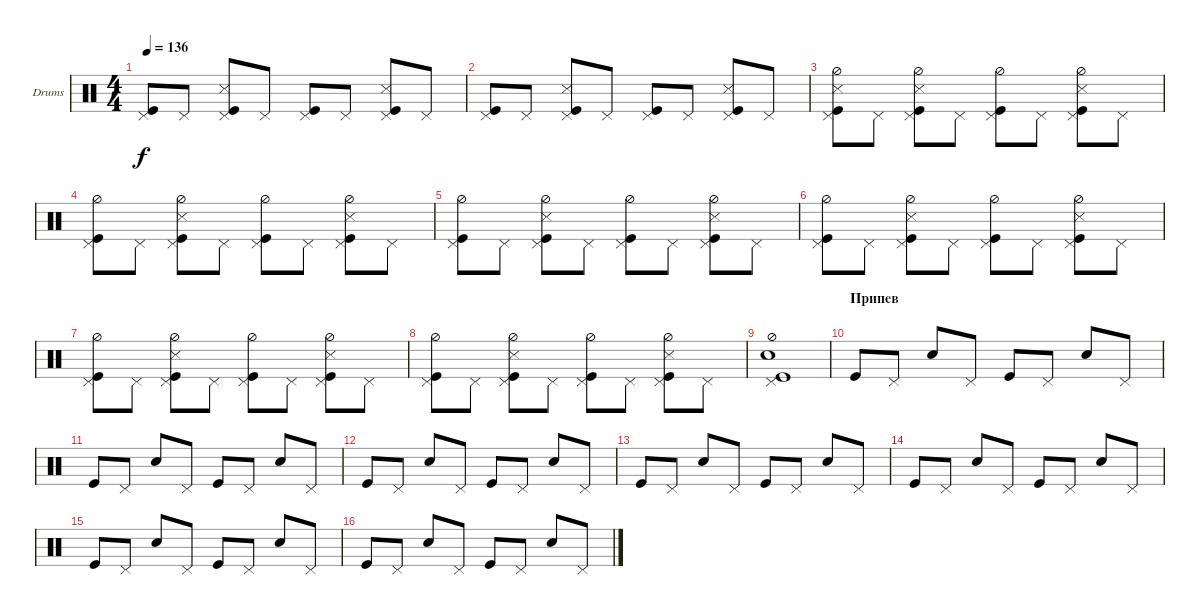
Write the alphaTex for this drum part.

\defaultSystemsLayout 4
\bracketExtendMode groupsimilarinstruments
\firstSystemTrackNameOrientation horizontal
\otherSystemsTrackNameOrientation horizontal
\track ("Е. Кулаков" "Drums") {instrument percussion}
\staff {score}
\articulation defaults
\ts (4 4)
\tempo 136
\clef neutral
\ks c
("Pedal Hi-Hat (hit)" "Kick (hit)").8{dy f} "Pedal Hi-Hat (hit)".8 ("Pedal Hi-Hat (hit)" "Kick (hit)" "Snare (side stick) 3").8 "Pedal Hi-Hat (hit)".8 ("Pedal Hi-Hat (hit)" "Kick (hit)").8 "Pedal Hi-Hat (hit)".8 ("Pedal Hi-Hat (hit)" "Kick (hit)" "Snare (side stick) 3").8 "Pedal Hi-Hat (hit)".8 |
("Pedal Hi-Hat (hit)" "Kick (hit)").8 "Pedal Hi-Hat (hit)".8 ("Pedal Hi-Hat (hit)" "Kick (hit)" "Snare (side stick) 3").8 "Pedal Hi-Hat (hit)".8 ("Pedal Hi-Hat (hit)" "Kick (hit)").8 "Pedal Hi-Hat (hit)".8 ("Pedal Hi-Hat (hit)" "Kick (hit)" "Snare (side stick) 3").8 "Pedal Hi-Hat (hit)".8 |
("Pedal Hi-Hat (hit)" "Kick (hit)" "Snare (side stick) 3" "Hi-Hat (half)").8 "Pedal Hi-Hat (hit)".8 ("Pedal Hi-Hat (hit)" "Kick (hit)" "Snare (side stick) 3" "Hi-Hat (half)").8 "Pedal Hi-Hat (hit)".8 ("Pedal Hi-Hat (hit)" "Kick (hit)" "Hi-Hat (half)").8 "Pedal Hi-Hat (hit)".8 ("Pedal Hi-Hat (hit)" "Kick (hit)" "Snare (side stick) 3" "Hi-Hat (half)").8 "Pedal Hi-Hat (hit)".8 |
("Pedal Hi-Hat (hit)" "Kick (hit)" "Hi-Hat (half)").8 "Pedal Hi-Hat (hit)".8 ("Pedal Hi-Hat (hit)" "Kick (hit)" "Snare (side stick) 3" "Hi-Hat (half)").8 "Pedal Hi-Hat (hit)".8 ("Pedal Hi-Hat (hit)" "Kick (hit)" "Hi-Hat (half)").8 "Pedal Hi-Hat (hit)".8 ("Pedal Hi-Hat (hit)" "Kick (hit)" "Snare (side stick) 3" "Hi-Hat (half)").8 "Pedal Hi-Hat (hit)".8 |
("Pedal Hi-Hat (hit)" "Kick (hit)" "Hi-Hat (half)").8 "Pedal Hi-Hat (hit)".8 ("Pedal Hi-Hat (hit)" "Kick (hit)" "Snare (side stick) 3" "Hi-Hat (half)").8 "Pedal Hi-Hat (hit)".8 ("Pedal Hi-Hat (hit)" "Kick (hit)" "Hi-Hat (half)").8 "Pedal Hi-Hat (hit)".8 ("Pedal Hi-Hat (hit)" "Kick (hit)" "Snare (side stick) 3" "Hi-Hat (half)").8 "Pedal Hi-Hat (hit)".8 |
("Pedal Hi-Hat (hit)" "Kick (hit)" "Hi-Hat (half)").8 "Pedal Hi-Hat (hit)".8 ("Pedal Hi-Hat (hit)" "Kick (hit)" "Snare (side stick) 3" "Hi-Hat (half)").8 "Pedal Hi-Hat (hit)".8 ("Pedal Hi-Hat (hit)" "Kick (hit)" "Hi-Hat (half)").8 "Pedal Hi-Hat (hit)".8 ("Pedal Hi-Hat (hit)" "Kick (hit)" "Snare (side stick) 3" "Hi-Hat (half)").8 "Pedal Hi-Hat (hit)".8 |
("Pedal Hi-Hat (hit)" "Kick (hit)" "Hi-Hat (half)").8 "Pedal Hi-Hat (hit)".8 ("Pedal Hi-Hat (hit)" "Kick (hit)" "Snare (side stick) 3" "Hi-Hat (half)").8 "Pedal Hi-Hat (hit)".8 ("Pedal Hi-Hat (hit)" "Kick (hit)" "Hi-Hat (half)").8 "Pedal Hi-Hat (hit)".8 ("Pedal Hi-Hat (hit)" "Kick (hit)" "Snare (side stick) 3" "Hi-Hat (half)").8 "Pedal Hi-Hat (hit)".8 |
("Pedal Hi-Hat (hit)" "Kick (hit)" "Hi-Hat (half)").8 "Pedal Hi-Hat (hit)".8 ("Pedal Hi-Hat (hit)" "Kick (hit)" "Snare (side stick) 3" "Hi-Hat (half)").8 "Pedal Hi-Hat (hit)".8 ("Pedal Hi-Hat (hit)" "Kick (hit)" "Hi-Hat (half)").8 "Pedal Hi-Hat (hit)".8 ("Pedal Hi-Hat (hit)" "Kick (hit)" "Snare (side stick) 3" "Hi-Hat (half)").8 "Pedal Hi-Hat (hit)".8 |
("Pedal Hi-Hat (hit)" "Kick (hit)" "Hi-Hat (half)" "Snare (hit) 2").1 |
\section ("" "Припев")
"Kick (hit)".8 "Pedal Hi-Hat (hit)".8 "Snare (hit) 2".8 "Pedal Hi-Hat (hit)".8 "Kick (hit)".8 "Pedal Hi-Hat (hit)".8 "Snare (hit) 2".8 "Pedal Hi-Hat (hit)".8 |
"Kick (hit)".8 "Pedal Hi-Hat (hit)".8 "Snare (hit) 2".8 "Pedal Hi-Hat (hit)".8 "Kick (hit)".8 "Pedal Hi-Hat (hit)".8 "Snare (hit) 2".8 "Pedal Hi-Hat (hit)".8 |
"Kick (hit)".8 "Pedal Hi-Hat (hit)".8 "Snare (hit) 2".8 "Pedal Hi-Hat (hit)".8 "Kick (hit)".8 "Pedal Hi-Hat (hit)".8 "Snare (hit) 2".8 "Pedal Hi-Hat (hit)".8 |
"Kick (hit)".8 "Pedal Hi-Hat (hit)".8 "Snare (hit) 2".8 "Pedal Hi-Hat (hit)".8 "Kick (hit)".8 "Pedal Hi-Hat (hit)".8 "Snare (hit) 2".8 "Pedal Hi-Hat (hit)".8 |
"Kick (hit)".8 "Pedal Hi-Hat (hit)".8 "Snare (hit) 2".8 "Pedal Hi-Hat (hit)".8 "Kick (hit)".8 "Pedal Hi-Hat (hit)".8 "Snare (hit) 2".8 "Pedal Hi-Hat (hit)".8 |
"Kick (hit)".8 "Pedal Hi-Hat (hit)".8 "Snare (hit) 2".8 "Pedal Hi-Hat (hit)".8 "Kick (hit)".8 "Pedal Hi-Hat (hit)".8 "Snare (hit) 2".8 "Pedal Hi-Hat (hit)".8 |
"Kick (hit)".8 "Pedal Hi-Hat (hit)".8 "Snare (hit) 2".8 "Pedal Hi-Hat (hit)".8 "Kick (hit)".8 "Pedal Hi-Hat (hit)".8 "Snare (hit) 2".8 "Pedal Hi-Hat (hit)".8
